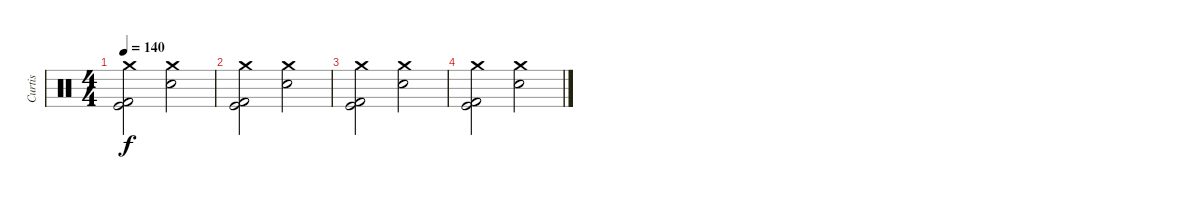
\track ("Curtis" "Curtis") {instrument percussion}
\staff {score}
\articulation defaults
\ts (4 4)
\tempo 140
\clef neutral
\ks c
("Crash medium (hit)" "Kick (hit) 2" "Kick (hit)").2{dy f} ("Crash medium (hit)" "Electric Snare (hit)").2 |
("Crash medium (hit)" "Kick (hit) 2" "Kick (hit)").2 ("Crash medium (hit)" "Electric Snare (hit)").2 |
("Crash medium (hit)" "Kick (hit) 2" "Kick (hit)").2 ("Crash medium (hit)" "Electric Snare (hit)").2 |
("Crash medium (hit)" "Kick (hit) 2" "Kick (hit)").2 ("Crash medium (hit)" "Electric Snare (hit)").2
